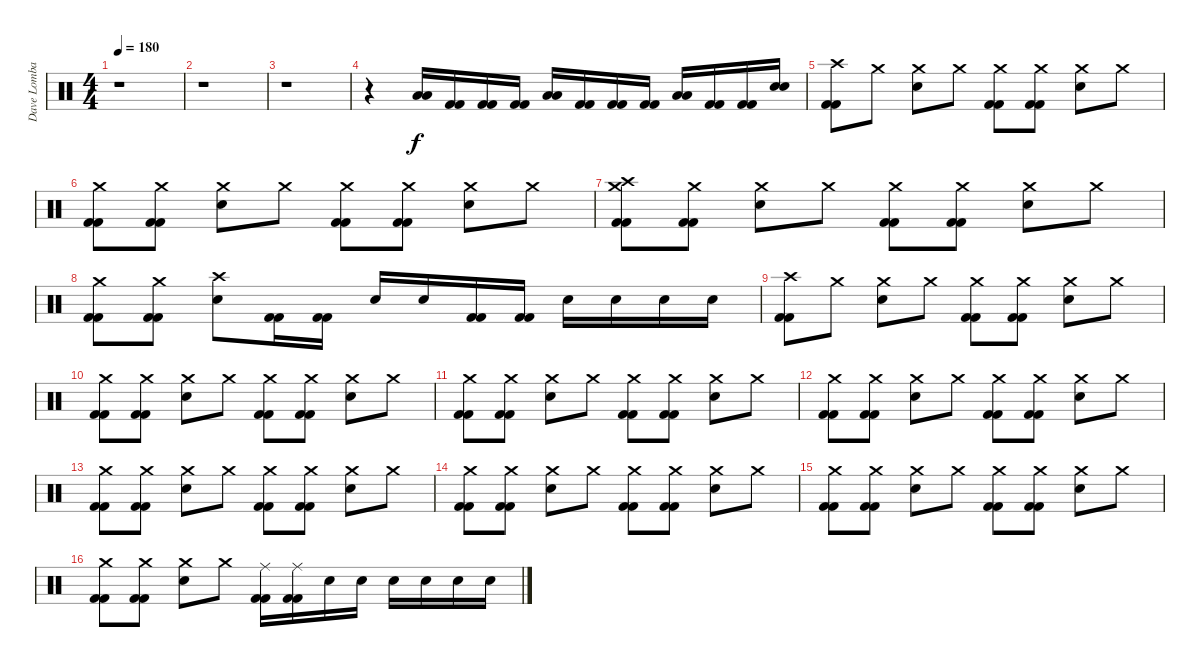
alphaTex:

\track ("Dave Lombardo" "Dave Lomba") {instrument percussion}
\staff {score}
\articulation defaults
\ts (4 4)
\tempo 180
\clef neutral
\ks c
r.1{dy f} |
r.1 |
r.1 |
r.4 ("Low Floor Tom (hit)" "Low Floor Tom (hit)").16 ("Kick (hit) 2" "Kick (hit) 2").16 ("Kick (hit) 2" "Kick (hit) 2").16 ("Kick (hit) 2" "Kick (hit) 2").16 ("Low Floor Tom (hit)" "Low Floor Tom (hit)").16 ("Kick (hit) 2" "Kick (hit) 2").16 ("Kick (hit) 2" "Kick (hit) 2").16 ("Kick (hit) 2" "Kick (hit) 2").16 ("Low Floor Tom (hit)" "Low Floor Tom (hit)").16 ("Kick (hit) 2" "Kick (hit) 2").16 ("Kick (hit) 2" "Kick (hit) 2").16 ("Electric Snare (hit)" "Electric Snare (hit)").16 |
("Crash high (hit)" "Kick (hit) 2" "Kick (hit) 2").8 "Crash medium (hit)".8 ("Crash medium (hit)" "Electric Snare (hit)").8 "Crash medium (hit)".8 ("Crash medium (hit)" "Kick (hit) 2" "Kick (hit) 2").8 ("Crash medium (hit)" "Kick (hit) 2" "Kick (hit) 2").8 ("Crash medium (hit)" "Electric Snare (hit)").8 "Crash medium (hit)".8 |
("Crash medium (hit)" "Kick (hit) 2" "Kick (hit) 2").8 ("Crash medium (hit)" "Kick (hit) 2" "Kick (hit) 2").8 ("Crash medium (hit)" "Electric Snare (hit)").8 "Crash medium (hit)".8 ("Crash medium (hit)" "Kick (hit) 2" "Kick (hit) 2").8 ("Crash medium (hit)" "Kick (hit) 2" "Kick (hit) 2").8 ("Crash medium (hit)" "Electric Snare (hit)").8 "Crash medium (hit)".8 |
("Crash medium (hit)" "Crash high (hit)" "Kick (hit) 2" "Kick (hit) 2").8 ("Crash medium (hit)" "Kick (hit) 2" "Kick (hit) 2").8 ("Crash medium (hit)" "Electric Snare (hit)").8 "Crash medium (hit)".8 ("Crash medium (hit)" "Kick (hit) 2" "Kick (hit) 2").8 ("Crash medium (hit)" "Kick (hit) 2" "Kick (hit) 2").8 ("Crash medium (hit)" "Electric Snare (hit)").8 "Crash medium (hit)".8 |
("Crash medium (hit)" "Kick (hit) 2" "Kick (hit) 2").8 ("Crash medium (hit)" "Kick (hit) 2" "Kick (hit) 2").8 ("Crash high (hit)" "Electric Snare (hit)").8 ("Kick (hit) 2" "Kick (hit) 2").16 ("Kick (hit) 2" "Kick (hit) 2").16 "Electric Snare (hit)".16 "Electric Snare (hit)".16 ("Kick (hit) 2" "Kick (hit) 2").16 ("Kick (hit) 2" "Kick (hit) 2").16 "Electric Snare (hit)".16 "Electric Snare (hit)".16 "Electric Snare (hit)".16 "Electric Snare (hit)".16 |
("Crash high (hit)" "Kick (hit) 2" "Kick (hit) 2").8 "Crash medium (hit)".8 ("Crash medium (hit)" "Electric Snare (hit)").8 "Crash medium (hit)".8 ("Crash medium (hit)" "Kick (hit) 2" "Kick (hit) 2").8 ("Crash medium (hit)" "Kick (hit) 2" "Kick (hit) 2").8 ("Crash medium (hit)" "Electric Snare (hit)").8 "Crash medium (hit)".8 |
("Crash medium (hit)" "Kick (hit) 2" "Kick (hit) 2").8 ("Crash medium (hit)" "Kick (hit) 2" "Kick (hit) 2").8 ("Crash medium (hit)" "Electric Snare (hit)").8 "Crash medium (hit)".8 ("Crash medium (hit)" "Kick (hit) 2" "Kick (hit) 2").8 ("Crash medium (hit)" "Kick (hit) 2" "Kick (hit) 2").8 ("Crash medium (hit)" "Electric Snare (hit)").8 "Crash medium (hit)".8 |
("Crash medium (hit)" "Kick (hit) 2" "Kick (hit) 2").8 ("Crash medium (hit)" "Kick (hit) 2" "Kick (hit) 2").8 ("Crash medium (hit)" "Electric Snare (hit)").8 "Crash medium (hit)".8 ("Crash medium (hit)" "Kick (hit) 2" "Kick (hit) 2").8 ("Crash medium (hit)" "Kick (hit) 2" "Kick (hit) 2").8 ("Crash medium (hit)" "Electric Snare (hit)").8 "Crash medium (hit)".8 |
("Crash medium (hit)" "Kick (hit) 2" "Kick (hit) 2").8 ("Crash medium (hit)" "Kick (hit) 2" "Kick (hit) 2").8 ("Crash medium (hit)" "Electric Snare (hit)").8 "Crash medium (hit)".8 ("Crash medium (hit)" "Kick (hit) 2" "Kick (hit) 2").8 ("Crash medium (hit)" "Kick (hit) 2" "Kick (hit) 2").8 ("Crash medium (hit)" "Electric Snare (hit)").8 "Crash medium (hit)".8 |
("Crash medium (hit)" "Kick (hit) 2" "Kick (hit) 2").8 ("Crash medium (hit)" "Kick (hit) 2" "Kick (hit) 2").8 ("Crash medium (hit)" "Electric Snare (hit)").8 "Crash medium (hit)".8 ("Crash medium (hit)" "Kick (hit) 2" "Kick (hit) 2").8 ("Crash medium (hit)" "Kick (hit) 2" "Kick (hit) 2").8 ("Crash medium (hit)" "Electric Snare (hit)").8 "Crash medium (hit)".8 |
("Crash medium (hit)" "Kick (hit) 2" "Kick (hit) 2").8 ("Crash medium (hit)" "Kick (hit) 2" "Kick (hit) 2").8 ("Crash medium (hit)" "Electric Snare (hit)").8 "Crash medium (hit)".8 ("Crash medium (hit)" "Kick (hit) 2" "Kick (hit) 2").8 ("Crash medium (hit)" "Kick (hit) 2" "Kick (hit) 2").8 ("Crash medium (hit)" "Electric Snare (hit)").8 "Crash medium (hit)".8 |
("Crash medium (hit)" "Kick (hit) 2" "Kick (hit) 2").8 ("Crash medium (hit)" "Kick (hit) 2" "Kick (hit) 2").8 ("Crash medium (hit)" "Electric Snare (hit)").8 "Crash medium (hit)".8 ("Crash medium (hit)" "Kick (hit) 2" "Kick (hit) 2").8 ("Crash medium (hit)" "Kick (hit) 2" "Kick (hit) 2").8 ("Crash medium (hit)" "Electric Snare (hit)").8 "Crash medium (hit)".8 |
("Crash medium (hit)" "Kick (hit) 2" "Kick (hit) 2").8 ("Crash medium (hit)" "Kick (hit) 2" "Kick (hit) 2").8 ("Crash medium (hit)" "Electric Snare (hit)").8 "Crash medium (hit)".8 ("Ride (middle)" "Kick (hit) 2" "Kick (hit) 2").16 ("Ride (middle)" "Kick (hit) 2" "Kick (hit) 2").16 "Electric Snare (hit)".16 "Electric Snare (hit)".16 "Electric Snare (hit)".16 "Electric Snare (hit)".16 "Electric Snare (hit)".16 "Electric Snare (hit)".16
